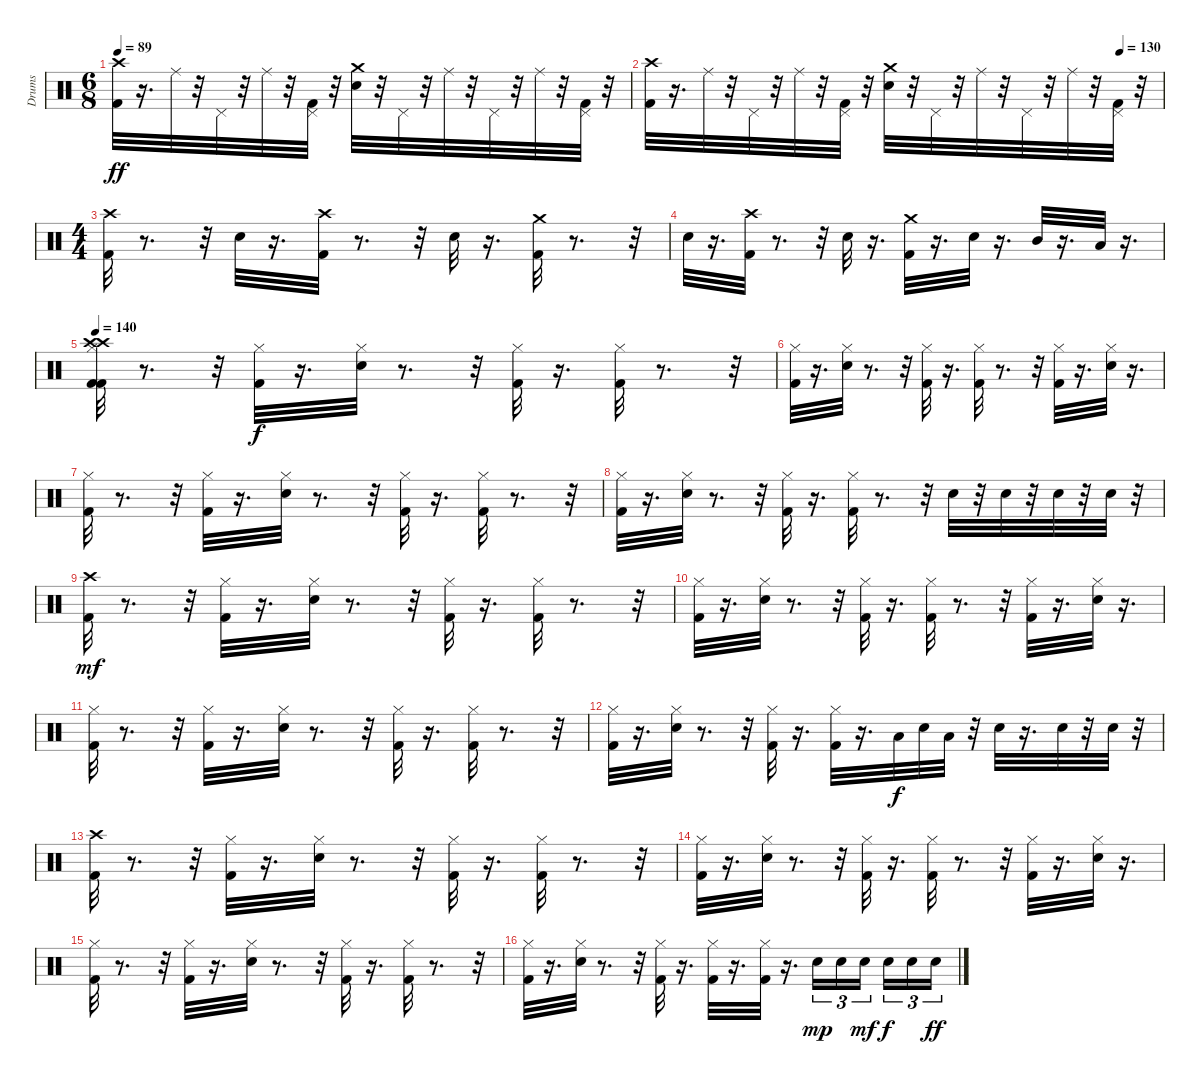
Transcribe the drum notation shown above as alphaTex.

\track ("Drums" "Drums") {instrument percussion}
\staff {score}
\articulation defaults
\ts (6 8)
\tempo 89
\clef neutral
\ks c
("Kick (hit) 2" "Crash high (hit)").32{dy ff} r.16{d} "Ride (middle)".32 r.32 "Pedal Hi-Hat (hit)".32 r.32 "Ride (middle)".32 r.32 ("Pedal Hi-Hat (hit)" "Kick (hit) 2").32 r.32 ("Snare (hit) 2" "Crash medium (hit)").32 r.32 "Pedal Hi-Hat (hit)".32 r.32 "Ride (middle)".32 r.32 "Pedal Hi-Hat (hit)".32 r.32 "Ride (middle)".32 r.32 ("Pedal Hi-Hat (hit)" "Kick (hit) 2").32 r.32 |
\tempo (130 0.9166666666666666)
("Kick (hit) 2" "Crash high (hit)").32 r.16{d} "Ride (middle)".32 r.32 "Pedal Hi-Hat (hit)".32 r.32 "Ride (middle)".32 r.32 ("Pedal Hi-Hat (hit)" "Kick (hit) 2").32 r.32 ("Crash medium (hit)" "Snare (hit) 2").32 r.32 "Pedal Hi-Hat (hit)".32 r.32 "Ride (middle)".32 r.32 "Pedal Hi-Hat (hit)".32 r.32 "Ride (middle)".32 r.32 ("Pedal Hi-Hat (hit)" "Kick (hit) 2").32 r.32 |
\ts (4 4)
("Crash high (hit)" "Kick (hit) 2").32 r.8{d} r.32 "Snare (hit) 2".32 r.16{d} ("Crash high (hit)" "Kick (hit) 2").32 r.8{d} r.32 "Snare (hit) 2".32 r.16{d} ("Crash medium (hit)" "Kick (hit) 2").32 r.8{d} r.32 |
"Snare (hit) 2".32 r.16{d} ("Crash high (hit)" "Kick (hit) 2").32 r.8{d} r.32 "Snare (hit) 2".32 r.16{d} ("Crash medium (hit)" "Kick (hit) 2").32 r.16{d} "Snare (hit) 2".32 r.16{d} "Mid Tom (hit)".32 r.16{d} "Low Tom (hit)".32 r.16{d} |
\tempo 140
("Crash high (hit)" "Kick (hit) 2" "Hi-Hat (closed)" "Crash high (hit)" "Kick (hit) 2").32 r.8{d} r.32 ("Hi-Hat (closed)" "Kick (hit) 2").32{dy f} r.16{d} ("Hi-Hat (closed)" "Snare (hit) 2").32 r.8{d} r.32 ("Hi-Hat (closed)" "Kick (hit) 2").32 r.16{d} ("Hi-Hat (closed)" "Kick (hit) 2").32 r.8{d} r.32 |
("Hi-Hat (closed)" "Kick (hit) 2").32 r.16{d} ("Hi-Hat (closed)" "Snare (hit) 2").32 r.8{d} r.32 ("Hi-Hat (closed)" "Kick (hit) 2").32 r.16{d} ("Hi-Hat (closed)" "Kick (hit) 2").32 r.8{d} r.32 ("Hi-Hat (closed)" "Kick (hit) 2").32 r.16{d} ("Hi-Hat (closed)" "Snare (hit) 2").32 r.16{d} |
("Hi-Hat (closed)" "Kick (hit) 2").32 r.8{d} r.32 ("Hi-Hat (closed)" "Kick (hit) 2").32 r.16{d} ("Hi-Hat (closed)" "Snare (hit) 2").32 r.8{d} r.32 ("Hi-Hat (closed)" "Kick (hit) 2").32 r.16{d} ("Hi-Hat (closed)" "Kick (hit) 2").32 r.8{d} r.32 |
("Hi-Hat (closed)" "Kick (hit) 2").32 r.16{d} ("Hi-Hat (closed)" "Snare (hit) 2").32 r.8{d} r.32 ("Hi-Hat (closed)" "Kick (hit) 2").32 r.16{d} ("Hi-Hat (closed)" "Kick (hit) 2").32 r.8{d} r.32 "Snare (hit) 2".32 r.32 "Snare (hit) 2".32 r.32 "Snare (hit) 2".32 r.32 "Snare (hit) 2".32 r.32 |
("Crash high (hit)" "Kick (hit) 2").32{dy mf} r.8{d} r.32 ("Hi-Hat (closed)" "Kick (hit) 2").32 r.16{d} ("Hi-Hat (closed)" "Snare (hit) 2").32 r.8{d} r.32 ("Hi-Hat (closed)" "Kick (hit) 2").32 r.16{d} ("Hi-Hat (closed)" "Kick (hit) 2").32 r.8{d} r.32 |
("Hi-Hat (closed)" "Kick (hit) 2").32 r.16{d} ("Hi-Hat (closed)" "Snare (hit) 2").32 r.8{d} r.32 ("Hi-Hat (closed)" "Kick (hit) 2").32 r.16{d} ("Hi-Hat (closed)" "Kick (hit) 2").32 r.8{d} r.32 ("Hi-Hat (closed)" "Kick (hit) 2").32 r.16{d} ("Hi-Hat (closed)" "Snare (hit) 2").32 r.16{d} |
("Hi-Hat (closed)" "Kick (hit) 2").32 r.8{d} r.32 ("Hi-Hat (closed)" "Kick (hit) 2").32 r.16{d} ("Hi-Hat (closed)" "Snare (hit) 2").32 r.8{d} r.32 ("Hi-Hat (closed)" "Kick (hit) 2").32 r.16{d} ("Kick (hit) 2" "Hi-Hat (closed)").32 r.8{d} r.32 |
("Hi-Hat (closed)" "Kick (hit) 2").32 r.16{d} ("Hi-Hat (closed)" "Snare (hit) 2").32 r.8{d} r.32 ("Hi-Hat (closed)" "Kick (hit) 2").32 r.16{d} ("Hi-Hat (closed)" "Kick (hit) 2").32 r.16{d} "Low Tom (hit)".32{dy f} "Snare (hit) 2".32 "Low Tom (hit)".32 r.32 "Snare (hit) 2".32 r.16{d} "Snare (hit) 2".32 r.32 "Snare (hit) 2".32 r.32 |
("Crash high (hit)" "Kick (hit) 2").32 r.8{d} r.32 ("Hi-Hat (closed)" "Kick (hit) 2").32 r.16{d} ("Hi-Hat (closed)" "Snare (hit) 2").32 r.8{d} r.32 ("Hi-Hat (closed)" "Kick (hit) 2").32 r.16{d} ("Hi-Hat (closed)" "Kick (hit) 2").32 r.8{d} r.32 |
("Hi-Hat (closed)" "Kick (hit) 2").32 r.16{d} ("Hi-Hat (closed)" "Snare (hit) 2").32 r.8{d} r.32 ("Hi-Hat (closed)" "Kick (hit) 2").32 r.16{d} ("Hi-Hat (closed)" "Kick (hit) 2").32 r.8{d} r.32 ("Hi-Hat (closed)" "Kick (hit) 2").32 r.16{d} ("Hi-Hat (closed)" "Snare (hit) 2").32 r.16{d} |
("Hi-Hat (closed)" "Kick (hit) 2").32 r.8{d} r.32 ("Hi-Hat (closed)" "Kick (hit) 2").32 r.16{d} ("Hi-Hat (closed)" "Snare (hit) 2").32 r.8{d} r.32 ("Hi-Hat (closed)" "Kick (hit) 2").32 r.16{d} ("Hi-Hat (closed)" "Kick (hit) 2").32 r.8{d} r.32 |
("Hi-Hat (closed)" "Kick (hit) 2").32 r.16{d} ("Hi-Hat (closed)" "Snare (hit) 2").32 r.8{d} r.32 ("Hi-Hat (closed)" "Kick (hit) 2").32 r.16{d} ("Hi-Hat (closed)" "Kick (hit) 2").32 r.16{d} ("Hi-Hat (closed)" "Kick (hit) 2").32 r.16{d} "Snare (hit) 2".16{tu (3 2) dy mp} "Snare (hit) 2".16{tu (3 2)} "Snare (hit) 2".16{tu (3 2) dy mf beam splitsecondary} "Snare (hit) 2".16{tu (3 2) dy f} "Snare (hit) 2".16{tu (3 2)} "Snare (hit) 2".16{tu (3 2) dy ff}
